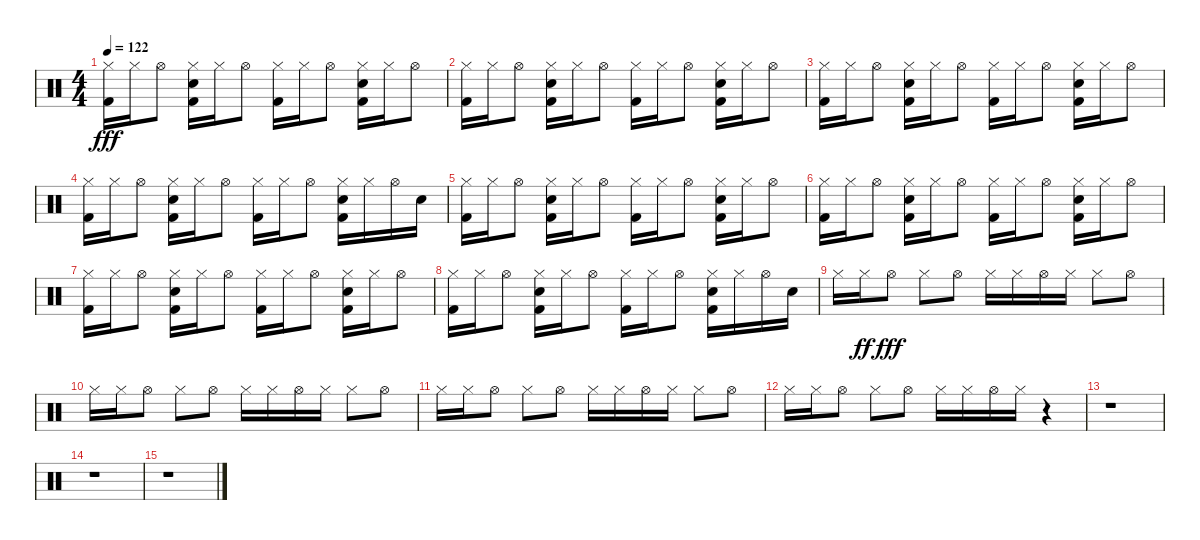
\track "" {mute instrument percussion}
\staff {score}
\articulation defaults
\ts (4 4)
\tempo 122
\clef neutral
\ks c
("Kick (hit) 2" "Hi-Hat (closed)").16{dy fff} "Hi-Hat (closed)".16 "Hi-Hat (open)".8 ("Kick (hit) 2" "Snare (hit) 2" "Hi-Hat (closed)").16 "Hi-Hat (closed)".16 "Hi-Hat (open)".8 ("Kick (hit) 2" "Hi-Hat (closed)").16 "Hi-Hat (closed)".16 "Hi-Hat (open)".8 ("Kick (hit) 2" "Snare (hit) 2" "Hi-Hat (closed)").16 "Hi-Hat (closed)".16 "Hi-Hat (open)".8 |
("Kick (hit) 2" "Hi-Hat (closed)").16 "Hi-Hat (closed)".16 "Hi-Hat (open)".8 ("Kick (hit) 2" "Snare (hit) 2" "Hi-Hat (closed)").16 "Hi-Hat (closed)".16 "Hi-Hat (open)".8 ("Kick (hit) 2" "Hi-Hat (closed)").16 "Hi-Hat (closed)".16 "Hi-Hat (open)".8 ("Kick (hit) 2" "Snare (hit) 2" "Hi-Hat (closed)").16 "Hi-Hat (closed)".16 "Hi-Hat (open)".8 |
("Kick (hit) 2" "Hi-Hat (closed)").16 "Hi-Hat (closed)".16 "Hi-Hat (open)".8 ("Kick (hit) 2" "Snare (hit) 2" "Hi-Hat (closed)").16 "Hi-Hat (closed)".16 "Hi-Hat (open)".8 ("Kick (hit) 2" "Hi-Hat (closed)").16 "Hi-Hat (closed)".16 "Hi-Hat (open)".8 ("Kick (hit) 2" "Snare (hit) 2" "Hi-Hat (closed)").16 "Hi-Hat (closed)".16 "Hi-Hat (open)".8 |
("Kick (hit) 2" "Hi-Hat (closed)").16 "Hi-Hat (closed)".16 "Hi-Hat (open)".8 ("Kick (hit) 2" "Snare (hit) 2" "Hi-Hat (closed)").16 "Hi-Hat (closed)".16 "Hi-Hat (open)".8 ("Kick (hit) 2" "Hi-Hat (closed)").16 "Hi-Hat (closed)".16 "Hi-Hat (open)".8 ("Kick (hit) 2" "Snare (hit) 2" "Hi-Hat (closed)").16 "Hi-Hat (closed)".16 "Hi-Hat (open)".16 "Snare (hit) 2".16 |
("Kick (hit) 2" "Hi-Hat (closed)").16 "Hi-Hat (closed)".16 "Hi-Hat (open)".8 ("Kick (hit) 2" "Snare (hit) 2" "Hi-Hat (closed)").16 "Hi-Hat (closed)".16 "Hi-Hat (open)".8 ("Kick (hit) 2" "Hi-Hat (closed)").16 "Hi-Hat (closed)".16 "Hi-Hat (open)".8 ("Kick (hit) 2" "Snare (hit) 2" "Hi-Hat (closed)").16 "Hi-Hat (closed)".16 "Hi-Hat (open)".8 |
("Kick (hit) 2" "Hi-Hat (closed)").16 "Hi-Hat (closed)".16 "Hi-Hat (open)".8 ("Kick (hit) 2" "Snare (hit) 2" "Hi-Hat (closed)").16 "Hi-Hat (closed)".16 "Hi-Hat (open)".8 ("Kick (hit) 2" "Hi-Hat (closed)").16 "Hi-Hat (closed)".16 "Hi-Hat (open)".8 ("Kick (hit) 2" "Snare (hit) 2" "Hi-Hat (closed)").16 "Hi-Hat (closed)".16 "Hi-Hat (open)".8 |
("Kick (hit) 2" "Hi-Hat (closed)").16 "Hi-Hat (closed)".16 "Hi-Hat (open)".8 ("Kick (hit) 2" "Snare (hit) 2" "Hi-Hat (closed)").16 "Hi-Hat (closed)".16 "Hi-Hat (open)".8 ("Kick (hit) 2" "Hi-Hat (closed)").16 "Hi-Hat (closed)".16 "Hi-Hat (open)".8 ("Kick (hit) 2" "Snare (hit) 2" "Hi-Hat (closed)").16 "Hi-Hat (closed)".16 "Hi-Hat (open)".8 |
("Kick (hit) 2" "Hi-Hat (closed)").16 "Hi-Hat (closed)".16 "Hi-Hat (open)".8 ("Kick (hit) 2" "Snare (hit) 2" "Hi-Hat (closed)").16 "Hi-Hat (closed)".16 "Hi-Hat (open)".8 ("Kick (hit) 2" "Hi-Hat (closed)").16 "Hi-Hat (closed)".16 "Hi-Hat (open)".8 ("Kick (hit) 2" "Snare (hit) 2" "Hi-Hat (closed)").16 "Hi-Hat (closed)".16 "Hi-Hat (open)".16 "Snare (hit) 2".16 |
"Hi-Hat (closed)".16 "Hi-Hat (closed)".16{dy ff} "Hi-Hat (open)".8{dy fff} "Hi-Hat (closed)".8 "Hi-Hat (open)".8 "Hi-Hat (closed)".16 "Hi-Hat (closed)".16 "Hi-Hat (open)".16 "Hi-Hat (closed)".16 "Hi-Hat (closed)".8 "Hi-Hat (open)".8 |
"Hi-Hat (closed)".16 "Hi-Hat (closed)".16 "Hi-Hat (open)".8 "Hi-Hat (closed)".8 "Hi-Hat (open)".8 "Hi-Hat (closed)".16 "Hi-Hat (closed)".16 "Hi-Hat (open)".16 "Hi-Hat (closed)".16 "Hi-Hat (closed)".8 "Hi-Hat (open)".8 |
"Hi-Hat (closed)".16 "Hi-Hat (closed)".16 "Hi-Hat (open)".8 "Hi-Hat (closed)".8 "Hi-Hat (open)".8 "Hi-Hat (closed)".16 "Hi-Hat (closed)".16 "Hi-Hat (open)".16 "Hi-Hat (closed)".16 "Hi-Hat (closed)".8 "Hi-Hat (open)".8 |
"Hi-Hat (closed)".16 "Hi-Hat (closed)".16 "Hi-Hat (open)".8 "Hi-Hat (closed)".8 "Hi-Hat (open)".8 "Hi-Hat (closed)".16 "Hi-Hat (closed)".16 "Hi-Hat (open)".16 "Hi-Hat (closed)".16 r.4 |
r.1 |
r.1 |
r.1
